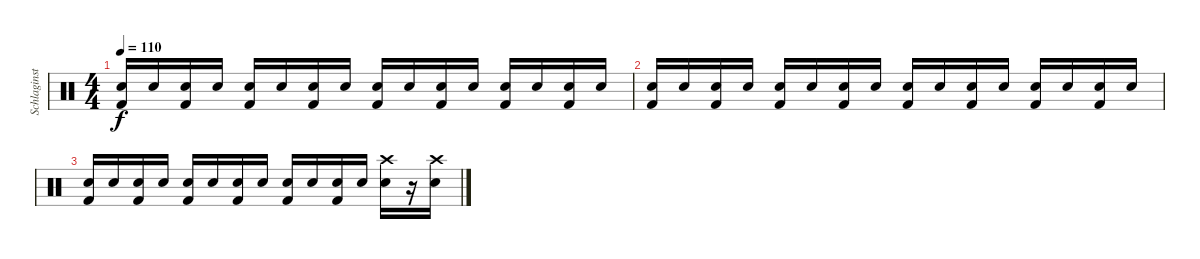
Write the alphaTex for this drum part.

\track ("Schlaginstrumente - Auswahl" "Schlaginst") {instrument percussion}
\staff {score}
\articulation defaults
\ts (4 4)
\tempo 110
\clef neutral
\ks c
("Kick (hit) 2" "Snare (hit) 2").16{dy f} "Snare (hit) 2".16 ("Kick (hit) 2" "Snare (hit) 2").16 "Snare (hit) 2".16 ("Kick (hit) 2" "Snare (hit) 2").16 "Snare (hit) 2".16 ("Kick (hit) 2" "Snare (hit) 2").16 "Snare (hit) 2".16 ("Kick (hit) 2" "Snare (hit) 2").16 "Snare (hit) 2".16 ("Kick (hit) 2" "Snare (hit) 2").16 "Snare (hit) 2".16 ("Kick (hit) 2" "Snare (hit) 2").16 "Snare (hit) 2".16 ("Kick (hit) 2" "Snare (hit) 2").16 "Snare (hit) 2".16 |
("Kick (hit) 2" "Snare (hit) 2").16 "Snare (hit) 2".16 ("Kick (hit) 2" "Snare (hit) 2").16 "Snare (hit) 2".16 ("Kick (hit) 2" "Snare (hit) 2").16 "Snare (hit) 2".16 ("Kick (hit) 2" "Snare (hit) 2").16 "Snare (hit) 2".16 ("Kick (hit) 2" "Snare (hit) 2").16 "Snare (hit) 2".16 ("Kick (hit) 2" "Snare (hit) 2").16 "Snare (hit) 2".16 ("Kick (hit) 2" "Snare (hit) 2").16 "Snare (hit) 2".16 ("Kick (hit) 2" "Snare (hit) 2").16 "Snare (hit) 2".16 |
("Kick (hit) 2" "Snare (hit) 2").16 "Snare (hit) 2".16 ("Kick (hit) 2" "Snare (hit) 2").16 "Snare (hit) 2".16 ("Kick (hit) 2" "Snare (hit) 2").16 "Snare (hit) 2".16 ("Kick (hit) 2" "Snare (hit) 2").16 "Snare (hit) 2".16 ("Kick (hit) 2" "Snare (hit) 2").16 "Snare (hit) 2".16 ("Kick (hit) 2" "Snare (hit) 2").16 "Snare (hit) 2".16 ("Crash high (hit)" "Snare (hit) 2").16 r.16 ("Crash high (hit)" "Snare (hit) 2").16
